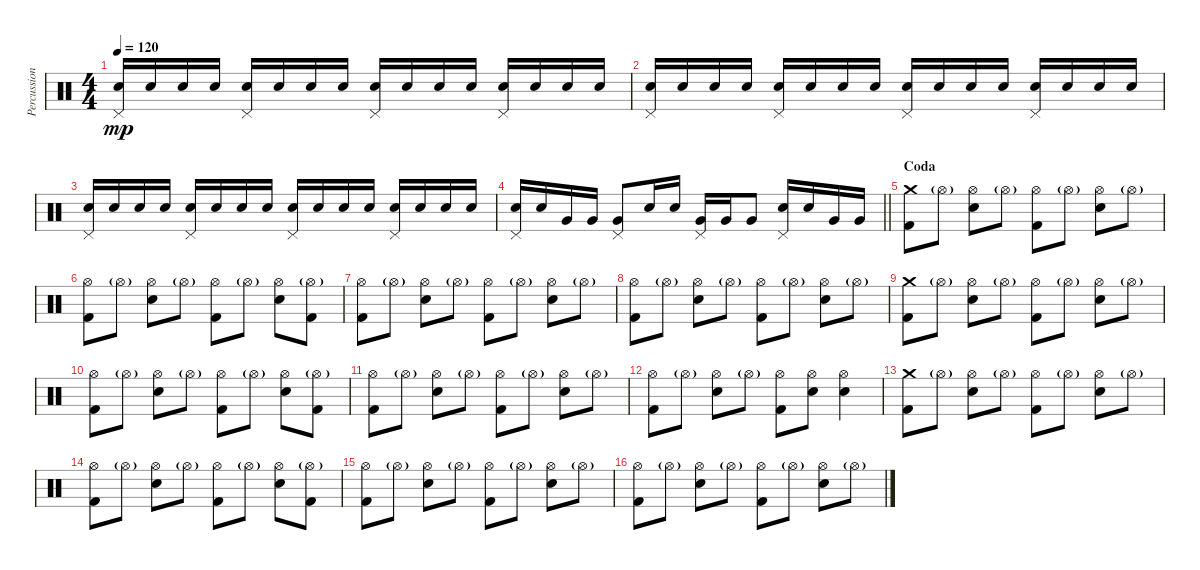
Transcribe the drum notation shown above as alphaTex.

\track ("Percussion" "Percussion") {instrument percussion}
\staff {score}
\articulation defaults
\ts (4 4)
\tempo 120
\clef neutral
\ks c
("Electric Snare (hit)" "Pedal Hi-Hat (hit)").16{dy mp volume 5} "Electric Snare (hit)".16{volume 16} "Electric Snare (hit)".16 "Electric Snare (hit)".16 ("Electric Snare (hit)" "Pedal Hi-Hat (hit)").16 "Electric Snare (hit)".16 "Electric Snare (hit)".16 "Electric Snare (hit)".16 ("Electric Snare (hit)" "Pedal Hi-Hat (hit)").16 "Electric Snare (hit)".16 "Electric Snare (hit)".16 "Electric Snare (hit)".16 ("Electric Snare (hit)" "Pedal Hi-Hat (hit)").16 "Electric Snare (hit)".16 "Electric Snare (hit)".16 "Electric Snare (hit)".16 |
("Electric Snare (hit)" "Pedal Hi-Hat (hit)").16 "Electric Snare (hit)".16 "Electric Snare (hit)".16 "Electric Snare (hit)".16 ("Electric Snare (hit)" "Pedal Hi-Hat (hit)").16 "Electric Snare (hit)".16 "Electric Snare (hit)".16 "Electric Snare (hit)".16 ("Electric Snare (hit)" "Pedal Hi-Hat (hit)").16 "Electric Snare (hit)".16 "Electric Snare (hit)".16 "Electric Snare (hit)".16 ("Electric Snare (hit)" "Pedal Hi-Hat (hit)").16 "Electric Snare (hit)".16 "Electric Snare (hit)".16 "Electric Snare (hit)".16 |
("Electric Snare (hit)" "Pedal Hi-Hat (hit)").16 "Electric Snare (hit)".16 "Electric Snare (hit)".16 "Electric Snare (hit)".16 ("Electric Snare (hit)" "Pedal Hi-Hat (hit)").16 "Electric Snare (hit)".16 "Electric Snare (hit)".16 "Electric Snare (hit)".16 ("Electric Snare (hit)" "Pedal Hi-Hat (hit)").16 "Electric Snare (hit)".16 "Electric Snare (hit)".16 "Electric Snare (hit)".16 ("Electric Snare (hit)" "Pedal Hi-Hat (hit)").16 "Electric Snare (hit)".16 "Electric Snare (hit)".16 "Electric Snare (hit)".16 |
\barLineRight lightlight
("Electric Snare (hit)" "Pedal Hi-Hat (hit)").16 "Electric Snare (hit)".16 "Very Low Tom (hit)".16 "Very Low Tom (hit)".16 ("Very Low Tom (hit)" "Pedal Hi-Hat (hit)").8 "Electric Snare (hit)".16 "Electric Snare (hit)".16 ("Very Low Tom (hit)" "Pedal Hi-Hat (hit)").16 "Very Low Tom (hit)".16 "Very Low Tom (hit)".8 ("Electric Snare (hit)" "Pedal Hi-Hat (hit)").16 "Electric Snare (hit)".16 "Very Low Tom (hit)".16 "Very Low Tom (hit)".16 |
\section ("" "Coda")
("Crash medium (hit)" "Kick (hit) 2").8{volume 16} "Hi-Hat (open)"{g}.8 ("Hi-Hat (open)" "Electric Snare (hit)").8 "Hi-Hat (open)"{g}.8 ("Hi-Hat (open)" "Kick (hit) 2").8 "Hi-Hat (open)"{g}.8 ("Hi-Hat (open)" "Electric Snare (hit)").8 "Hi-Hat (open)"{g}.8 |
("Hi-Hat (open)" "Kick (hit) 2").8 "Hi-Hat (open)"{g}.8 ("Hi-Hat (open)" "Electric Snare (hit)").8 "Hi-Hat (open)"{g}.8 ("Hi-Hat (open)" "Kick (hit) 2").8 "Hi-Hat (open)"{g}.8 ("Hi-Hat (open)" "Electric Snare (hit)").8 ("Hi-Hat (open)"{g} "Kick (hit) 2").8 |
("Hi-Hat (open)" "Kick (hit) 2").8 "Hi-Hat (open)"{g}.8 ("Hi-Hat (open)" "Electric Snare (hit)").8 "Hi-Hat (open)"{g}.8 ("Hi-Hat (open)" "Kick (hit) 2").8 "Hi-Hat (open)"{g}.8 ("Hi-Hat (open)" "Electric Snare (hit)").8 "Hi-Hat (open)"{g}.8 |
("Hi-Hat (open)" "Kick (hit) 2").8 "Hi-Hat (open)"{g}.8 ("Hi-Hat (open)" "Electric Snare (hit)").8 "Hi-Hat (open)"{g}.8 ("Hi-Hat (open)" "Kick (hit) 2").8 "Hi-Hat (open)"{g}.8 ("Hi-Hat (open)" "Electric Snare (hit)").8 "Hi-Hat (open)"{g}.8 |
("Crash medium (hit)" "Kick (hit) 2").8 "Hi-Hat (open)"{g}.8 ("Hi-Hat (open)" "Electric Snare (hit)").8 "Hi-Hat (open)"{g}.8 ("Hi-Hat (open)" "Kick (hit) 2").8 "Hi-Hat (open)"{g}.8 ("Hi-Hat (open)" "Electric Snare (hit)").8 "Hi-Hat (open)"{g}.8 |
("Hi-Hat (open)" "Kick (hit) 2").8 "Hi-Hat (open)"{g}.8 ("Hi-Hat (open)" "Electric Snare (hit)").8 "Hi-Hat (open)"{g}.8 ("Hi-Hat (open)" "Kick (hit) 2").8 "Hi-Hat (open)"{g}.8 ("Hi-Hat (open)" "Electric Snare (hit)").8 ("Hi-Hat (open)"{g} "Kick (hit) 2").8 |
("Hi-Hat (open)" "Kick (hit) 2").8 "Hi-Hat (open)"{g}.8 ("Hi-Hat (open)" "Electric Snare (hit)").8 "Hi-Hat (open)"{g}.8 ("Hi-Hat (open)" "Kick (hit) 2").8 "Hi-Hat (open)"{g}.8 ("Hi-Hat (open)" "Electric Snare (hit)").8 "Hi-Hat (open)"{g}.8 |
("Hi-Hat (open)" "Kick (hit) 2").8 "Hi-Hat (open)"{g}.8 ("Hi-Hat (open)" "Electric Snare (hit)").8 "Hi-Hat (open)"{g}.8 ("Hi-Hat (open)" "Kick (hit) 2").8 ("Hi-Hat (open)" "Electric Snare (hit)").8 ("Hi-Hat (open)" "Electric Snare (hit)").4 |
("Crash medium (hit)" "Kick (hit) 2").8 "Hi-Hat (open)"{g}.8 ("Hi-Hat (open)" "Electric Snare (hit)").8 "Hi-Hat (open)"{g}.8 ("Hi-Hat (open)" "Kick (hit) 2").8 "Hi-Hat (open)"{g}.8 ("Hi-Hat (open)" "Electric Snare (hit)").8 "Hi-Hat (open)"{g}.8 |
("Hi-Hat (open)" "Kick (hit) 2").8 "Hi-Hat (open)"{g}.8 ("Hi-Hat (open)" "Electric Snare (hit)").8 "Hi-Hat (open)"{g}.8 ("Hi-Hat (open)" "Kick (hit) 2").8 "Hi-Hat (open)"{g}.8 ("Hi-Hat (open)" "Electric Snare (hit)").8 ("Hi-Hat (open)"{g} "Kick (hit) 2").8 |
("Hi-Hat (open)" "Kick (hit) 2").8 "Hi-Hat (open)"{g}.8 ("Hi-Hat (open)" "Electric Snare (hit)").8 "Hi-Hat (open)"{g}.8 ("Hi-Hat (open)" "Kick (hit) 2").8 "Hi-Hat (open)"{g}.8 ("Hi-Hat (open)" "Electric Snare (hit)").8 "Hi-Hat (open)"{g}.8 |
("Hi-Hat (open)" "Kick (hit) 2").8 "Hi-Hat (open)"{g}.8 ("Hi-Hat (open)" "Electric Snare (hit)").8 "Hi-Hat (open)"{g}.8 ("Hi-Hat (open)" "Kick (hit) 2").8 "Hi-Hat (open)"{g}.8 ("Hi-Hat (open)" "Electric Snare (hit)").8 "Hi-Hat (open)"{g}.8
